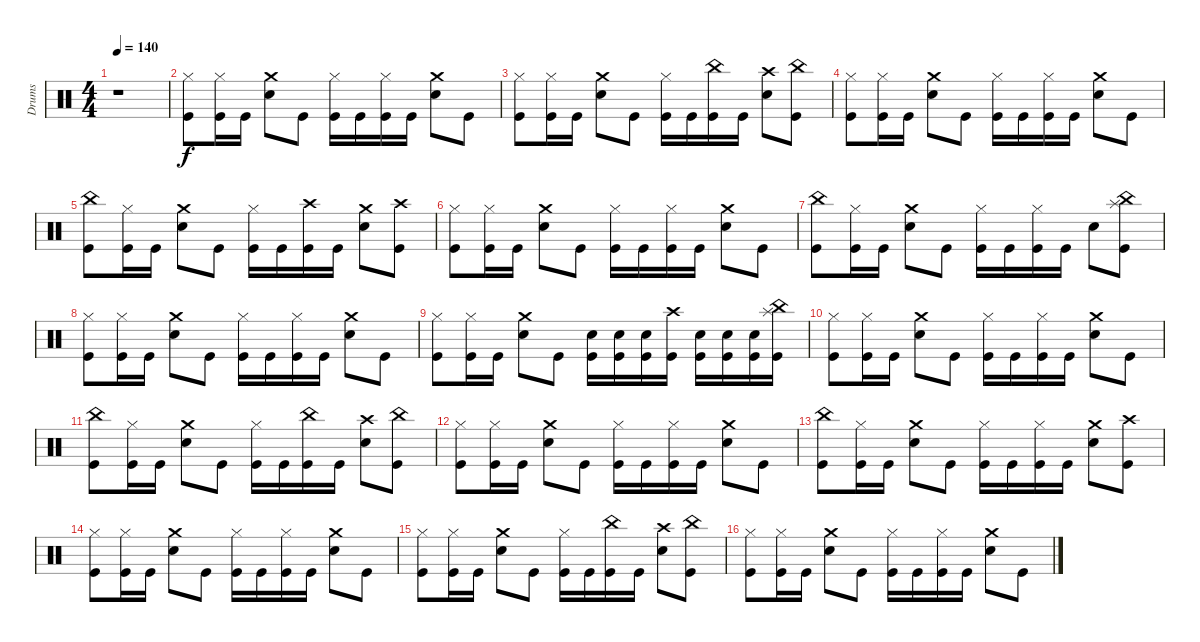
\track ("Drums" "Drums") {instrument percussion}
\staff {score}
\articulation defaults
\ts (4 4)
\tempo 140
\clef neutral
\ks c
r.1{dy f} |
("Hi-Hat (closed)" "Kick (hit)").8 ("Hi-Hat (closed)" "Kick (hit)").16 "Kick (hit)".16 ("Crash medium (hit)" "Electric Snare (hit)").8 "Kick (hit)".8 ("Hi-Hat (closed)" "Kick (hit)").16 "Kick (hit)".16 ("Hi-Hat (closed)" "Kick (hit)").16 "Kick (hit)".16 ("Crash medium (hit)" "Electric Snare (hit)").8 "Kick (hit)".8 |
("Hi-Hat (closed)" "Kick (hit)").8 ("Hi-Hat (closed)" "Kick (hit)").16 "Kick (hit)".16 ("Crash medium (hit)" "Electric Snare (hit)").8 "Kick (hit)".8 ("Hi-Hat (closed)" "Kick (hit)").16 "Kick (hit)".16 ("China (hit)" "Kick (hit)").16 "Kick (hit)".16 ("Crash high (hit)" "Electric Snare (hit)").8 ("China (hit)" "Kick (hit)").8 |
("Hi-Hat (closed)" "Kick (hit)").8 ("Hi-Hat (closed)" "Kick (hit)").16 "Kick (hit)".16 ("Crash medium (hit)" "Electric Snare (hit)").8 "Kick (hit)".8 ("Hi-Hat (closed)" "Kick (hit)").16 "Kick (hit)".16 ("Hi-Hat (closed)" "Kick (hit)").16 "Kick (hit)".16 ("Crash medium (hit)" "Electric Snare (hit)").8 "Kick (hit)".8 |
("China (hit)" "Kick (hit)").8 ("Hi-Hat (closed)" "Kick (hit)").16 "Kick (hit)".16 ("Crash medium (hit)" "Electric Snare (hit)").8 "Kick (hit)".8 ("Hi-Hat (closed)" "Kick (hit)").16 "Kick (hit)".16 ("Crash high (hit)" "Kick (hit)").16 "Kick (hit)".16 ("Crash medium (hit)" "Electric Snare (hit)").8 ("Crash high (hit)" "Kick (hit)").8 |
("Hi-Hat (closed)" "Kick (hit)").8 ("Hi-Hat (closed)" "Kick (hit)").16 "Kick (hit)".16 ("Crash medium (hit)" "Electric Snare (hit)").8 "Kick (hit)".8 ("Hi-Hat (closed)" "Kick (hit)").16 "Kick (hit)".16 ("Hi-Hat (closed)" "Kick (hit)").16 "Kick (hit)".16 ("Crash medium (hit)" "Electric Snare (hit)").8 "Kick (hit)".8 |
("China (hit)" "Kick (hit)").8 ("Hi-Hat (closed)" "Kick (hit)").16 "Kick (hit)".16 ("Crash medium (hit)" "Electric Snare (hit)").8 "Kick (hit)".8 ("Hi-Hat (closed)" "Kick (hit)").16 "Kick (hit)".16 ("Hi-Hat (closed)" "Kick (hit)").16 "Kick (hit)".16 "Electric Snare (hit)".8 ("China (hit)" "Splash (hit)" "Kick (hit)").8 |
("Hi-Hat (closed)" "Kick (hit)").8 ("Hi-Hat (closed)" "Kick (hit)").16 "Kick (hit)".16 ("Crash medium (hit)" "Electric Snare (hit)").8 "Kick (hit)".8 ("Hi-Hat (closed)" "Kick (hit)").16 "Kick (hit)".16 ("Hi-Hat (closed)" "Kick (hit)").16 "Kick (hit)".16 ("Crash medium (hit)" "Electric Snare (hit)").8 "Kick (hit)".8 |
("Hi-Hat (closed)" "Kick (hit)").8 ("Hi-Hat (closed)" "Kick (hit)").16 "Kick (hit)".16 ("Crash medium (hit)" "Electric Snare (hit)").8 "Kick (hit)".8 ("Electric Snare (hit)" "Kick (hit)").16 ("Electric Snare (hit)" "Kick (hit)").16 ("Electric Snare (hit)" "Kick (hit)").16 ("Crash high (hit)" "Kick (hit)").16 ("Electric Snare (hit)" "Kick (hit)").16 ("Electric Snare (hit)" "Kick (hit)").16 ("Electric Snare (hit)" "Kick (hit)").16 ("Splash (hit)" "China (hit)" "Kick (hit)").16 |
("Hi-Hat (closed)" "Kick (hit)").8 ("Hi-Hat (closed)" "Kick (hit)").16 "Kick (hit)".16 ("Crash medium (hit)" "Electric Snare (hit)").8 "Kick (hit)".8 ("Hi-Hat (closed)" "Kick (hit)").16 "Kick (hit)".16 ("Hi-Hat (closed)" "Kick (hit)").16 "Kick (hit)".16 ("Crash medium (hit)" "Electric Snare (hit)").8 "Kick (hit)".8 |
("China (hit)" "Kick (hit)").8 ("Hi-Hat (closed)" "Kick (hit)").16 "Kick (hit)".16 ("Crash medium (hit)" "Electric Snare (hit)").8 "Kick (hit)".8 ("Hi-Hat (closed)" "Kick (hit)").16 "Kick (hit)".16 ("China (hit)" "Kick (hit)").16 "Kick (hit)".16 ("Crash high (hit)" "Electric Snare (hit)").8 ("China (hit)" "Kick (hit)").8 |
("Hi-Hat (closed)" "Kick (hit)").8 ("Hi-Hat (closed)" "Kick (hit)").16 "Kick (hit)".16 ("Crash medium (hit)" "Electric Snare (hit)").8 "Kick (hit)".8 ("Hi-Hat (closed)" "Kick (hit)").16 "Kick (hit)".16 ("Hi-Hat (closed)" "Kick (hit)").16 "Kick (hit)".16 ("Crash medium (hit)" "Electric Snare (hit)").8 "Kick (hit)".8 |
("China (hit)" "Kick (hit)").8 ("Hi-Hat (closed)" "Kick (hit)").16 "Kick (hit)".16 ("Crash medium (hit)" "Electric Snare (hit)").8 "Kick (hit)".8 ("Hi-Hat (closed)" "Kick (hit)").16 "Kick (hit)".16 ("Hi-Hat (closed)" "Kick (hit)").16 "Kick (hit)".16 ("Crash medium (hit)" "Electric Snare (hit)").8 ("Crash high (hit)" "Kick (hit)").8 |
("Hi-Hat (closed)" "Kick (hit)").8 ("Hi-Hat (closed)" "Kick (hit)").16 "Kick (hit)".16 ("Crash medium (hit)" "Electric Snare (hit)").8 "Kick (hit)".8 ("Hi-Hat (closed)" "Kick (hit)").16 "Kick (hit)".16 ("Hi-Hat (closed)" "Kick (hit)").16 "Kick (hit)".16 ("Crash medium (hit)" "Electric Snare (hit)").8 "Kick (hit)".8 |
("Hi-Hat (closed)" "Kick (hit)").8 ("Hi-Hat (closed)" "Kick (hit)").16 "Kick (hit)".16 ("Crash medium (hit)" "Electric Snare (hit)").8 "Kick (hit)".8 ("Hi-Hat (closed)" "Kick (hit)").16 "Kick (hit)".16 ("China (hit)" "Kick (hit)").16 "Kick (hit)".16 ("Crash high (hit)" "Electric Snare (hit)").8 ("China (hit)" "Kick (hit)").8 |
("Hi-Hat (closed)" "Kick (hit)").8 ("Hi-Hat (closed)" "Kick (hit)").16 "Kick (hit)".16 ("Crash medium (hit)" "Electric Snare (hit)").8 "Kick (hit)".8 ("Hi-Hat (closed)" "Kick (hit)").16 "Kick (hit)".16 ("Hi-Hat (closed)" "Kick (hit)").16 "Kick (hit)".16 ("Crash medium (hit)" "Electric Snare (hit)").8 "Kick (hit)".8
